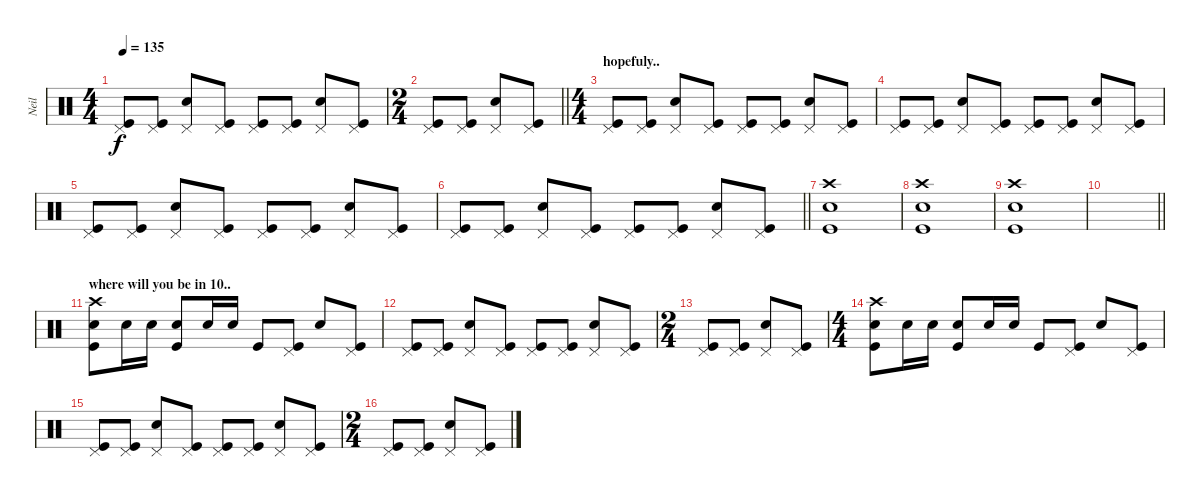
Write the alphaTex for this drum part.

\track ("Neil" "Neil") {instrument percussion}
\staff {score}
\articulation defaults
\ts (4 4)
\tempo 135
\clef neutral
\ks c
("Pedal Hi-Hat (hit)" "Kick (hit)").8{dy f} ("Pedal Hi-Hat (hit)" "Kick (hit)").8 ("Pedal Hi-Hat (hit)" "Snare (hit) 2").8 ("Pedal Hi-Hat (hit)" "Kick (hit)").8 ("Pedal Hi-Hat (hit)" "Kick (hit)").8 ("Pedal Hi-Hat (hit)" "Kick (hit)").8 ("Pedal Hi-Hat (hit)" "Snare (hit) 2").8 ("Pedal Hi-Hat (hit)" "Kick (hit)").8 |
\ts (2 4)
\barLineRight lightlight
("Pedal Hi-Hat (hit)" "Kick (hit)").8 ("Pedal Hi-Hat (hit)" "Kick (hit)").8 ("Pedal Hi-Hat (hit)" "Snare (hit) 2").8 ("Pedal Hi-Hat (hit)" "Kick (hit)").8 |
\ts (4 4)
\section ("" "hopefuly..")
("Pedal Hi-Hat (hit)" "Kick (hit)").8 ("Pedal Hi-Hat (hit)" "Kick (hit)").8 ("Pedal Hi-Hat (hit)" "Snare (hit) 2").8 ("Pedal Hi-Hat (hit)" "Kick (hit)").8 ("Pedal Hi-Hat (hit)" "Kick (hit)").8 ("Pedal Hi-Hat (hit)" "Kick (hit)").8 ("Pedal Hi-Hat (hit)" "Snare (hit) 2").8 ("Pedal Hi-Hat (hit)" "Kick (hit)").8 |
("Pedal Hi-Hat (hit)" "Kick (hit)").8 ("Pedal Hi-Hat (hit)" "Kick (hit)").8 ("Pedal Hi-Hat (hit)" "Snare (hit) 2").8 ("Pedal Hi-Hat (hit)" "Kick (hit)").8 ("Pedal Hi-Hat (hit)" "Kick (hit)").8 ("Pedal Hi-Hat (hit)" "Kick (hit)").8 ("Pedal Hi-Hat (hit)" "Snare (hit) 2").8 ("Pedal Hi-Hat (hit)" "Kick (hit)").8 |
("Pedal Hi-Hat (hit)" "Kick (hit)").8 ("Pedal Hi-Hat (hit)" "Kick (hit)").8 ("Pedal Hi-Hat (hit)" "Snare (hit) 2").8 ("Pedal Hi-Hat (hit)" "Kick (hit)").8 ("Pedal Hi-Hat (hit)" "Kick (hit)").8 ("Pedal Hi-Hat (hit)" "Kick (hit)").8 ("Pedal Hi-Hat (hit)" "Snare (hit) 2").8 ("Pedal Hi-Hat (hit)" "Kick (hit)").8 |
\barLineRight lightlight
("Pedal Hi-Hat (hit)" "Kick (hit)").8 ("Pedal Hi-Hat (hit)" "Kick (hit)").8 ("Pedal Hi-Hat (hit)" "Snare (hit) 2").8 ("Pedal Hi-Hat (hit)" "Kick (hit)").8 ("Pedal Hi-Hat (hit)" "Kick (hit)").8 ("Pedal Hi-Hat (hit)" "Kick (hit)").8 ("Pedal Hi-Hat (hit)" "Snare (hit) 2").8 ("Pedal Hi-Hat (hit)" "Kick (hit)").8 |
("Crash high (hit)" "Snare (hit) 2" "Kick (hit)").1 |
("Crash high (hit)" "Snare (hit) 2" "Kick (hit)").1 |
("Crash high (hit)" "Snare (hit) 2" "Kick (hit)").1 |
\barLineRight lightlight
|
\section ("" "where will you be in 10..")
("Crash high (hit)" "Snare (hit) 2" "Kick (hit)").8 "Snare (hit) 2".16 "Snare (hit) 2".16 ("Snare (hit) 2" "Kick (hit)").8 "Snare (hit) 2".16 "Snare (hit) 2".16 "Kick (hit)".8 ("Pedal Hi-Hat (hit)" "Kick (hit)").8 "Snare (hit) 2".8 ("Pedal Hi-Hat (hit)" "Kick (hit)").8 |
("Pedal Hi-Hat (hit)" "Kick (hit)").8 ("Pedal Hi-Hat (hit)" "Kick (hit)").8 ("Pedal Hi-Hat (hit)" "Snare (hit) 2").8 ("Pedal Hi-Hat (hit)" "Kick (hit)").8 ("Pedal Hi-Hat (hit)" "Kick (hit)").8 ("Pedal Hi-Hat (hit)" "Kick (hit)").8 ("Pedal Hi-Hat (hit)" "Snare (hit) 2").8 ("Pedal Hi-Hat (hit)" "Kick (hit)").8 |
\ts (2 4)
("Pedal Hi-Hat (hit)" "Kick (hit)").8 ("Pedal Hi-Hat (hit)" "Kick (hit)").8 ("Pedal Hi-Hat (hit)" "Snare (hit) 2").8 ("Pedal Hi-Hat (hit)" "Kick (hit)").8 |
\ts (4 4)
("Crash high (hit)" "Snare (hit) 2" "Kick (hit)").8 "Snare (hit) 2".16 "Snare (hit) 2".16 ("Snare (hit) 2" "Kick (hit)").8 "Snare (hit) 2".16 "Snare (hit) 2".16 "Kick (hit)".8 ("Pedal Hi-Hat (hit)" "Kick (hit)").8 "Snare (hit) 2".8 ("Pedal Hi-Hat (hit)" "Kick (hit)").8 |
("Pedal Hi-Hat (hit)" "Kick (hit)").8 ("Pedal Hi-Hat (hit)" "Kick (hit)").8 ("Pedal Hi-Hat (hit)" "Snare (hit) 2").8 ("Pedal Hi-Hat (hit)" "Kick (hit)").8 ("Pedal Hi-Hat (hit)" "Kick (hit)").8 ("Pedal Hi-Hat (hit)" "Kick (hit)").8 ("Pedal Hi-Hat (hit)" "Snare (hit) 2").8 ("Pedal Hi-Hat (hit)" "Kick (hit)").8 |
\ts (2 4)
("Pedal Hi-Hat (hit)" "Kick (hit)").8 ("Pedal Hi-Hat (hit)" "Kick (hit)").8 ("Pedal Hi-Hat (hit)" "Snare (hit) 2").8 ("Pedal Hi-Hat (hit)" "Kick (hit)").8
